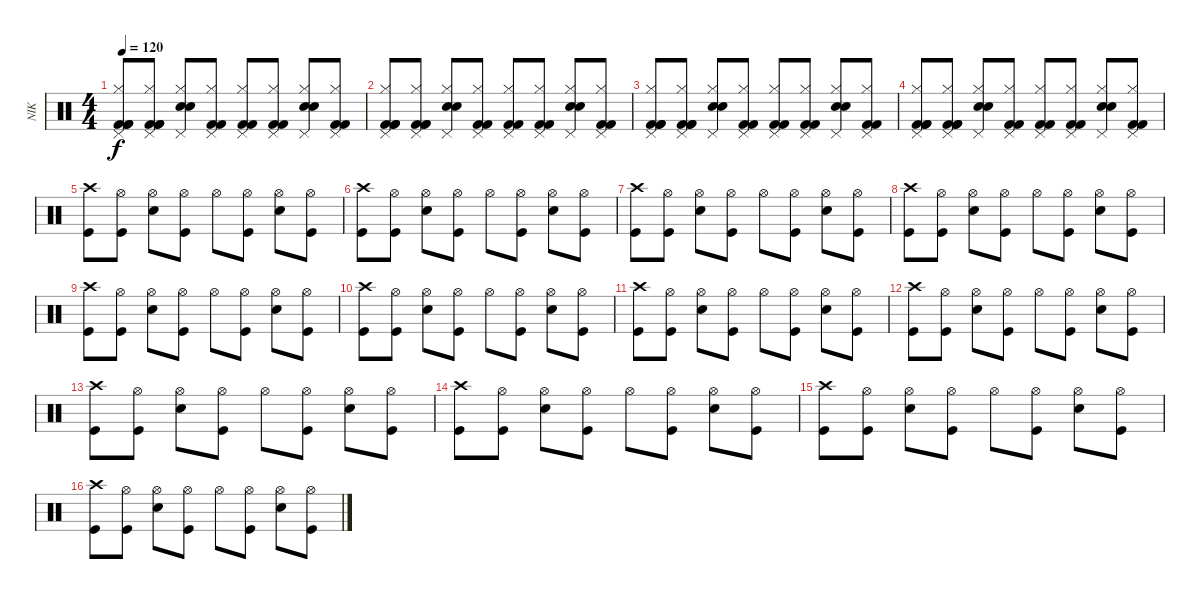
\track ("NIK" "NIK") {instrument percussion}
\staff {score}
\articulation defaults
\ts (4 4)
\tempo 120
\clef neutral
\ks c
("Pedal Hi-Hat (hit)" "Hi-Hat (closed)" "Kick (hit) 2" "Kick (hit) 2" "Kick (hit) 2").8{dy f} ("Pedal Hi-Hat (hit)" "Hi-Hat (closed)" "Kick (hit) 2" "Kick (hit) 2" "Kick (hit) 2").8 ("Pedal Hi-Hat (hit)" "Hi-Hat (closed)" "Snare (hit) 2" "Snare (hit) 2").8 ("Pedal Hi-Hat (hit)" "Hi-Hat (closed)" "Kick (hit) 2" "Kick (hit) 2").8 ("Pedal Hi-Hat (hit)" "Hi-Hat (closed)" "Kick (hit) 2" "Kick (hit) 2").8 ("Pedal Hi-Hat (hit)" "Hi-Hat (closed)" "Kick (hit) 2" "Kick (hit) 2").8 ("Pedal Hi-Hat (hit)" "Hi-Hat (closed)" "Snare (hit) 2" "Snare (hit) 2").8 ("Pedal Hi-Hat (hit)" "Hi-Hat (closed)" "Kick (hit) 2" "Kick (hit) 2").8 |
("Pedal Hi-Hat (hit)" "Hi-Hat (closed)" "Kick (hit) 2" "Kick (hit) 2" "Kick (hit) 2").8 ("Pedal Hi-Hat (hit)" "Hi-Hat (closed)" "Kick (hit) 2" "Kick (hit) 2" "Kick (hit) 2").8 ("Pedal Hi-Hat (hit)" "Hi-Hat (closed)" "Snare (hit) 2" "Snare (hit) 2").8 ("Pedal Hi-Hat (hit)" "Hi-Hat (closed)" "Kick (hit) 2" "Kick (hit) 2").8 ("Pedal Hi-Hat (hit)" "Hi-Hat (closed)" "Kick (hit) 2" "Kick (hit) 2").8 ("Pedal Hi-Hat (hit)" "Hi-Hat (closed)" "Kick (hit) 2" "Kick (hit) 2").8 ("Pedal Hi-Hat (hit)" "Hi-Hat (closed)" "Snare (hit) 2" "Snare (hit) 2").8 ("Pedal Hi-Hat (hit)" "Hi-Hat (closed)" "Kick (hit) 2" "Kick (hit) 2").8 |
("Pedal Hi-Hat (hit)" "Hi-Hat (closed)" "Kick (hit) 2" "Kick (hit) 2" "Kick (hit) 2").8 ("Pedal Hi-Hat (hit)" "Hi-Hat (closed)" "Kick (hit) 2" "Kick (hit) 2" "Kick (hit) 2").8 ("Pedal Hi-Hat (hit)" "Hi-Hat (closed)" "Snare (hit) 2" "Snare (hit) 2").8 ("Pedal Hi-Hat (hit)" "Hi-Hat (closed)" "Kick (hit) 2" "Kick (hit) 2").8 ("Pedal Hi-Hat (hit)" "Hi-Hat (closed)" "Kick (hit) 2" "Kick (hit) 2").8 ("Pedal Hi-Hat (hit)" "Hi-Hat (closed)" "Kick (hit) 2" "Kick (hit) 2").8 ("Pedal Hi-Hat (hit)" "Hi-Hat (closed)" "Snare (hit) 2" "Snare (hit) 2").8 ("Pedal Hi-Hat (hit)" "Hi-Hat (closed)" "Kick (hit) 2" "Kick (hit) 2").8 |
("Pedal Hi-Hat (hit)" "Hi-Hat (closed)" "Kick (hit) 2" "Kick (hit) 2" "Kick (hit) 2").8 ("Pedal Hi-Hat (hit)" "Hi-Hat (closed)" "Kick (hit) 2" "Kick (hit) 2" "Kick (hit) 2").8 ("Pedal Hi-Hat (hit)" "Hi-Hat (closed)" "Snare (hit) 2" "Snare (hit) 2").8 ("Pedal Hi-Hat (hit)" "Hi-Hat (closed)" "Kick (hit) 2" "Kick (hit) 2").8 ("Pedal Hi-Hat (hit)" "Hi-Hat (closed)" "Kick (hit) 2" "Kick (hit) 2").8 ("Pedal Hi-Hat (hit)" "Hi-Hat (closed)" "Kick (hit) 2" "Kick (hit) 2").8 ("Pedal Hi-Hat (hit)" "Hi-Hat (closed)" "Snare (hit) 2" "Snare (hit) 2").8 ("Pedal Hi-Hat (hit)" "Hi-Hat (closed)" "Kick (hit) 2" "Kick (hit) 2").8 |
("Crash high (hit)" "Kick (hit)").8 ("Hi-Hat (open)" "Kick (hit)").8 ("Hi-Hat (open)" "Electric Snare (hit)").8 ("Hi-Hat (open)" "Kick (hit)").8 "Hi-Hat (open)".8 ("Hi-Hat (open)" "Kick (hit)").8 ("Hi-Hat (open)" "Electric Snare (hit)").8 ("Hi-Hat (open)" "Kick (hit)").8 |
("Crash high (hit)" "Kick (hit)").8 ("Hi-Hat (open)" "Kick (hit)").8 ("Hi-Hat (open)" "Electric Snare (hit)").8 ("Hi-Hat (open)" "Kick (hit)").8 "Hi-Hat (open)".8 ("Hi-Hat (open)" "Kick (hit)").8 ("Hi-Hat (open)" "Electric Snare (hit)").8 ("Hi-Hat (open)" "Kick (hit)").8 |
("Crash high (hit)" "Kick (hit)").8 ("Hi-Hat (open)" "Kick (hit)").8 ("Hi-Hat (open)" "Electric Snare (hit)").8 ("Hi-Hat (open)" "Kick (hit)").8 "Hi-Hat (open)".8 ("Hi-Hat (open)" "Kick (hit)").8 ("Hi-Hat (open)" "Electric Snare (hit)").8 ("Hi-Hat (open)" "Kick (hit)").8 |
("Crash high (hit)" "Kick (hit)").8 ("Hi-Hat (open)" "Kick (hit)").8 ("Hi-Hat (open)" "Electric Snare (hit)").8 ("Hi-Hat (open)" "Kick (hit)").8 "Hi-Hat (open)".8 ("Hi-Hat (open)" "Kick (hit)").8 ("Hi-Hat (open)" "Electric Snare (hit)").8 ("Hi-Hat (open)" "Kick (hit)").8 |
("Crash high (hit)" "Kick (hit)").8 ("Hi-Hat (open)" "Kick (hit)").8 ("Hi-Hat (open)" "Electric Snare (hit)").8 ("Hi-Hat (open)" "Kick (hit)").8 "Hi-Hat (open)".8 ("Hi-Hat (open)" "Kick (hit)").8 ("Hi-Hat (open)" "Electric Snare (hit)").8 ("Hi-Hat (open)" "Kick (hit)").8 |
("Crash high (hit)" "Kick (hit)").8 ("Hi-Hat (open)" "Kick (hit)").8 ("Hi-Hat (open)" "Electric Snare (hit)").8 ("Hi-Hat (open)" "Kick (hit)").8 "Hi-Hat (open)".8 ("Hi-Hat (open)" "Kick (hit)").8 ("Hi-Hat (open)" "Electric Snare (hit)").8 ("Hi-Hat (open)" "Kick (hit)").8 |
("Crash high (hit)" "Kick (hit)").8 ("Hi-Hat (open)" "Kick (hit)").8 ("Hi-Hat (open)" "Electric Snare (hit)").8 ("Hi-Hat (open)" "Kick (hit)").8 "Hi-Hat (open)".8 ("Hi-Hat (open)" "Kick (hit)").8 ("Hi-Hat (open)" "Electric Snare (hit)").8 ("Hi-Hat (open)" "Kick (hit)").8 |
("Crash high (hit)" "Kick (hit)").8 ("Hi-Hat (open)" "Kick (hit)").8 ("Hi-Hat (open)" "Electric Snare (hit)").8 ("Hi-Hat (open)" "Kick (hit)").8 "Hi-Hat (open)".8 ("Hi-Hat (open)" "Kick (hit)").8 ("Hi-Hat (open)" "Electric Snare (hit)").8 ("Hi-Hat (open)" "Kick (hit)").8 |
("Crash high (hit)" "Kick (hit)").8 ("Hi-Hat (open)" "Kick (hit)").8 ("Hi-Hat (open)" "Electric Snare (hit)").8 ("Hi-Hat (open)" "Kick (hit)").8 "Hi-Hat (open)".8 ("Hi-Hat (open)" "Kick (hit)").8 ("Hi-Hat (open)" "Electric Snare (hit)").8 ("Hi-Hat (open)" "Kick (hit)").8 |
("Crash high (hit)" "Kick (hit)").8 ("Hi-Hat (open)" "Kick (hit)").8 ("Hi-Hat (open)" "Electric Snare (hit)").8 ("Hi-Hat (open)" "Kick (hit)").8 "Hi-Hat (open)".8 ("Hi-Hat (open)" "Kick (hit)").8 ("Hi-Hat (open)" "Electric Snare (hit)").8 ("Hi-Hat (open)" "Kick (hit)").8 |
("Crash high (hit)" "Kick (hit)").8 ("Hi-Hat (open)" "Kick (hit)").8 ("Hi-Hat (open)" "Electric Snare (hit)").8 ("Hi-Hat (open)" "Kick (hit)").8 "Hi-Hat (open)".8 ("Hi-Hat (open)" "Kick (hit)").8 ("Hi-Hat (open)" "Electric Snare (hit)").8 ("Hi-Hat (open)" "Kick (hit)").8 |
("Crash high (hit)" "Kick (hit)").8 ("Hi-Hat (open)" "Kick (hit)").8 ("Hi-Hat (open)" "Electric Snare (hit)").8 ("Hi-Hat (open)" "Kick (hit)").8 "Hi-Hat (open)".8 ("Hi-Hat (open)" "Kick (hit)").8 ("Hi-Hat (open)" "Electric Snare (hit)").8 ("Hi-Hat (open)" "Kick (hit)").8
